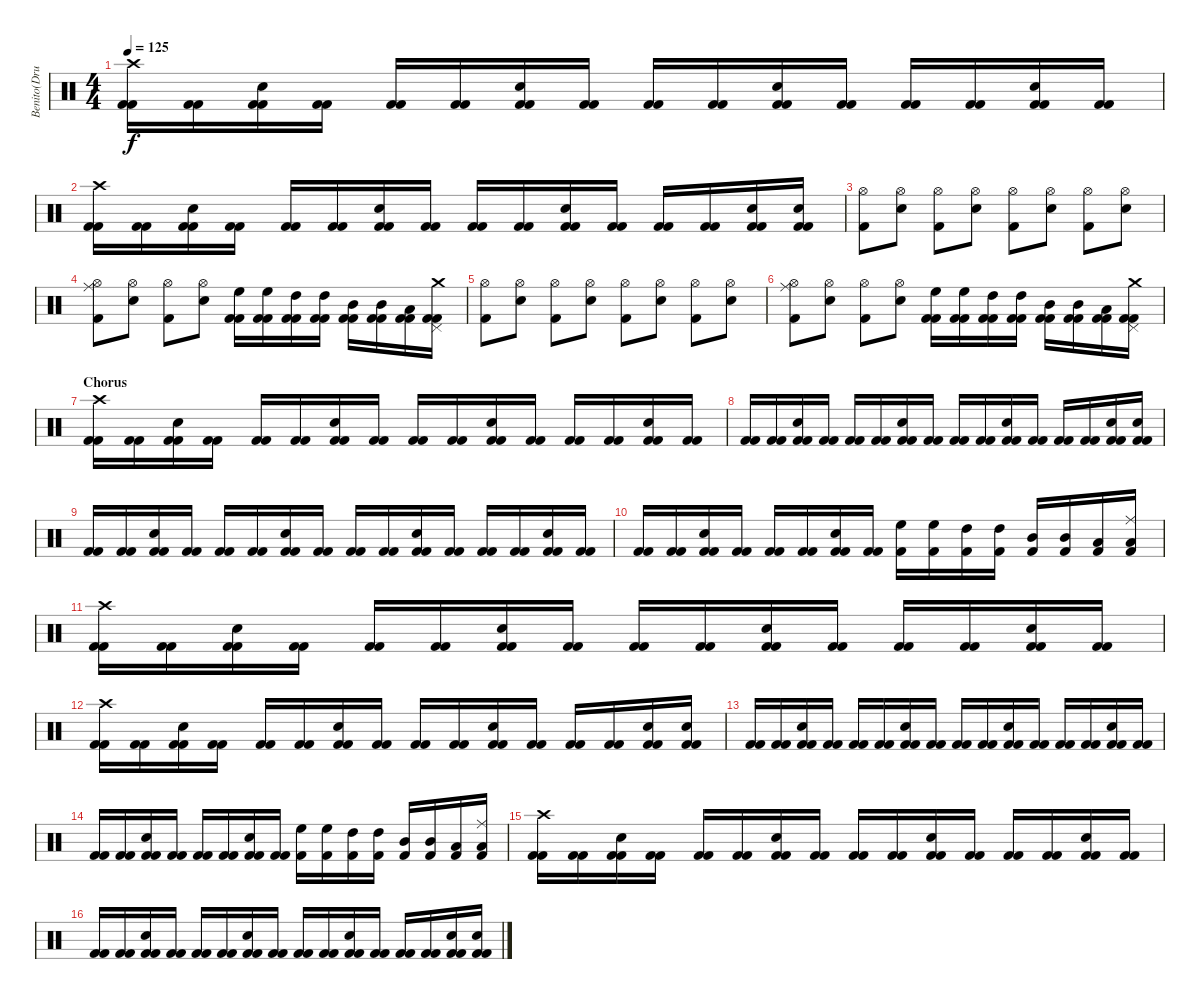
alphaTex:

\track ("Benito(Drums)" "Benito(Dru") {instrument percussion}
\staff {score}
\articulation defaults
\ts (4 4)
\tempo 125
\clef neutral
\ks c
("Kick (hit) 2" "Kick (hit) 2" "Crash high (hit)").16{dy f} ("Kick (hit) 2" "Kick (hit) 2").16 ("Kick (hit) 2" "Kick (hit) 2" "Electric Snare (hit)").16 ("Kick (hit) 2" "Kick (hit) 2").16 ("Kick (hit) 2" "Kick (hit) 2").16 ("Kick (hit) 2" "Kick (hit) 2").16 ("Kick (hit) 2" "Kick (hit) 2" "Electric Snare (hit)").16 ("Kick (hit) 2" "Kick (hit) 2").16 ("Kick (hit) 2" "Kick (hit) 2").16 ("Kick (hit) 2" "Kick (hit) 2").16 ("Kick (hit) 2" "Kick (hit) 2" "Electric Snare (hit)").16 ("Kick (hit) 2" "Kick (hit) 2").16 ("Kick (hit) 2" "Kick (hit) 2").16 ("Kick (hit) 2" "Kick (hit) 2").16 ("Kick (hit) 2" "Kick (hit) 2" "Electric Snare (hit)").16 ("Kick (hit) 2" "Kick (hit) 2").16 |
("Kick (hit) 2" "Kick (hit) 2" "Crash high (hit)").16 ("Kick (hit) 2" "Kick (hit) 2").16 ("Kick (hit) 2" "Kick (hit) 2" "Electric Snare (hit)").16 ("Kick (hit) 2" "Kick (hit) 2").16 ("Kick (hit) 2" "Kick (hit) 2").16 ("Kick (hit) 2" "Kick (hit) 2").16 ("Kick (hit) 2" "Kick (hit) 2" "Electric Snare (hit)").16 ("Kick (hit) 2" "Kick (hit) 2").16 ("Kick (hit) 2" "Kick (hit) 2").16 ("Kick (hit) 2" "Kick (hit) 2").16 ("Kick (hit) 2" "Kick (hit) 2" "Electric Snare (hit)").16 ("Kick (hit) 2" "Kick (hit) 2").16 ("Kick (hit) 2" "Kick (hit) 2").16 ("Kick (hit) 2" "Kick (hit) 2").16 ("Kick (hit) 2" "Kick (hit) 2" "Electric Snare (hit)").16 ("Kick (hit) 2" "Kick (hit) 2" "Electric Snare (hit)").16 |
("Kick (hit) 2" "Hi-Hat (open)").8 ("Hi-Hat (open)" "Electric Snare (hit)").8 ("Kick (hit) 2" "Hi-Hat (open)").8 ("Hi-Hat (open)" "Electric Snare (hit)").8 ("Kick (hit) 2" "Hi-Hat (open)").8 ("Hi-Hat (open)" "Electric Snare (hit)").8 ("Kick (hit) 2" "Hi-Hat (open)").8 ("Hi-Hat (open)" "Electric Snare (hit)").8 |
("Kick (hit) 2" "Hi-Hat (open)" "Ride (middle)").8 ("Hi-Hat (open)" "Snare (hit) 2").8 ("Kick (hit) 2" "Hi-Hat (open)").8 ("Hi-Hat (open)" "Snare (hit) 2").8 ("Kick (hit) 2" "Kick (hit) 2" "High Floor Tom (hit)").16 ("Kick (hit) 2" "Kick (hit) 2" "High Floor Tom (hit)").16 ("Kick (hit) 2" "Kick (hit) 2" "High Tom (hit)").16 ("Kick (hit) 2" "Kick (hit) 2" "High Tom (hit)").16 ("Kick (hit) 2" "Kick (hit) 2" "Mid Tom (hit)").16 ("Kick (hit) 2" "Kick (hit) 2" "Mid Tom (hit)").16 ("Kick (hit) 2" "Kick (hit) 2" "Low Tom (hit)").16 ("Kick (hit) 2" "Kick (hit) 2" "Pedal Hi-Hat (hit)" "Crash medium (hit)").16 |
("Kick (hit) 2" "Hi-Hat (open)").8 ("Hi-Hat (open)" "Electric Snare (hit)").8 ("Kick (hit) 2" "Hi-Hat (open)").8 ("Hi-Hat (open)" "Electric Snare (hit)").8 ("Kick (hit) 2" "Hi-Hat (open)").8 ("Hi-Hat (open)" "Electric Snare (hit)").8 ("Kick (hit) 2" "Hi-Hat (open)").8 ("Hi-Hat (open)" "Electric Snare (hit)").8 |
("Kick (hit) 2" "Hi-Hat (open)" "Ride (middle)").8 ("Hi-Hat (open)" "Snare (hit) 2").8 ("Kick (hit) 2" "Hi-Hat (open)").8 ("Hi-Hat (open)" "Snare (hit) 2").8 ("Kick (hit) 2" "Kick (hit) 2" "High Floor Tom (hit)").16 ("Kick (hit) 2" "Kick (hit) 2" "High Floor Tom (hit)").16 ("Kick (hit) 2" "Kick (hit) 2" "High Tom (hit)").16 ("Kick (hit) 2" "Kick (hit) 2" "High Tom (hit)").16 ("Kick (hit) 2" "Kick (hit) 2" "Mid Tom (hit)").16 ("Kick (hit) 2" "Kick (hit) 2" "Mid Tom (hit)").16 ("Kick (hit) 2" "Kick (hit) 2" "Low Tom (hit)").16 ("Kick (hit) 2" "Kick (hit) 2" "Pedal Hi-Hat (hit)" "Crash medium (hit)").16 |
\section ("" "Chorus")
("Kick (hit) 2" "Kick (hit) 2" "Crash high (hit)").16 ("Kick (hit) 2" "Kick (hit) 2").16 ("Kick (hit) 2" "Kick (hit) 2" "Electric Snare (hit)").16 ("Kick (hit) 2" "Kick (hit) 2").16 ("Kick (hit) 2" "Kick (hit) 2").16 ("Kick (hit) 2" "Kick (hit) 2").16 ("Kick (hit) 2" "Kick (hit) 2" "Electric Snare (hit)").16 ("Kick (hit) 2" "Kick (hit) 2").16 ("Kick (hit) 2" "Kick (hit) 2").16 ("Kick (hit) 2" "Kick (hit) 2").16 ("Kick (hit) 2" "Kick (hit) 2" "Electric Snare (hit)").16 ("Kick (hit) 2" "Kick (hit) 2").16 ("Kick (hit) 2" "Kick (hit) 2").16 ("Kick (hit) 2" "Kick (hit) 2").16 ("Kick (hit) 2" "Kick (hit) 2" "Electric Snare (hit)").16 ("Kick (hit) 2" "Kick (hit) 2").16 |
("Kick (hit) 2" "Kick (hit) 2").16 ("Kick (hit) 2" "Kick (hit) 2").16 ("Kick (hit) 2" "Kick (hit) 2" "Electric Snare (hit)").16 ("Kick (hit) 2" "Kick (hit) 2").16 ("Kick (hit) 2" "Kick (hit) 2").16 ("Kick (hit) 2" "Kick (hit) 2").16 ("Kick (hit) 2" "Kick (hit) 2" "Electric Snare (hit)").16 ("Kick (hit) 2" "Kick (hit) 2").16 ("Kick (hit) 2" "Kick (hit) 2").16 ("Kick (hit) 2" "Kick (hit) 2").16 ("Kick (hit) 2" "Kick (hit) 2" "Electric Snare (hit)").16 ("Kick (hit) 2" "Kick (hit) 2").16 ("Kick (hit) 2" "Kick (hit) 2").16 ("Kick (hit) 2" "Kick (hit) 2").16 ("Kick (hit) 2" "Kick (hit) 2" "Electric Snare (hit)").16 ("Kick (hit) 2" "Kick (hit) 2" "Electric Snare (hit)").16 |
("Kick (hit) 2" "Kick (hit) 2").16 ("Kick (hit) 2" "Kick (hit) 2").16 ("Kick (hit) 2" "Kick (hit) 2" "Electric Snare (hit)").16 ("Kick (hit) 2" "Kick (hit) 2").16 ("Kick (hit) 2" "Kick (hit) 2").16 ("Kick (hit) 2" "Kick (hit) 2").16 ("Kick (hit) 2" "Kick (hit) 2" "Electric Snare (hit)").16 ("Kick (hit) 2" "Kick (hit) 2").16 ("Kick (hit) 2" "Kick (hit) 2").16 ("Kick (hit) 2" "Kick (hit) 2").16 ("Kick (hit) 2" "Kick (hit) 2" "Electric Snare (hit)").16 ("Kick (hit) 2" "Kick (hit) 2").16 ("Kick (hit) 2" "Kick (hit) 2").16 ("Kick (hit) 2" "Kick (hit) 2").16 ("Kick (hit) 2" "Kick (hit) 2" "Electric Snare (hit)").16 ("Kick (hit) 2" "Kick (hit) 2").16 |
("Kick (hit) 2" "Kick (hit) 2").16 ("Kick (hit) 2" "Kick (hit) 2").16 ("Kick (hit) 2" "Kick (hit) 2" "Electric Snare (hit)").16 ("Kick (hit) 2" "Kick (hit) 2").16 ("Kick (hit) 2" "Kick (hit) 2").16 ("Kick (hit) 2" "Kick (hit) 2").16 ("Kick (hit) 2" "Kick (hit) 2" "Electric Snare (hit)").16 ("Kick (hit) 2" "Kick (hit) 2").16 ("Kick (hit) 2" "High Floor Tom (hit)").16 ("Kick (hit) 2" "High Floor Tom (hit)").16 ("Kick (hit) 2" "High Tom (hit)").16 ("Kick (hit) 2" "High Tom (hit)").16 ("Kick (hit) 2" "Mid Tom (hit)").16 ("Kick (hit) 2" "Mid Tom (hit)").16 ("Kick (hit) 2" "Low Tom (hit)").16 ("Kick (hit) 2" "Low Tom (hit)" "Ride (middle)").16 |
("Kick (hit) 2" "Kick (hit) 2" "Crash high (hit)").16 ("Kick (hit) 2" "Kick (hit) 2").16 ("Kick (hit) 2" "Kick (hit) 2" "Electric Snare (hit)").16 ("Kick (hit) 2" "Kick (hit) 2").16 ("Kick (hit) 2" "Kick (hit) 2").16 ("Kick (hit) 2" "Kick (hit) 2").16 ("Kick (hit) 2" "Kick (hit) 2" "Electric Snare (hit)").16 ("Kick (hit) 2" "Kick (hit) 2").16 ("Kick (hit) 2" "Kick (hit) 2").16 ("Kick (hit) 2" "Kick (hit) 2").16 ("Kick (hit) 2" "Kick (hit) 2" "Electric Snare (hit)").16 ("Kick (hit) 2" "Kick (hit) 2").16 ("Kick (hit) 2" "Kick (hit) 2").16 ("Kick (hit) 2" "Kick (hit) 2").16 ("Kick (hit) 2" "Kick (hit) 2" "Electric Snare (hit)").16 ("Kick (hit) 2" "Kick (hit) 2").16 |
("Kick (hit) 2" "Kick (hit) 2" "Crash high (hit)").16 ("Kick (hit) 2" "Kick (hit) 2").16 ("Kick (hit) 2" "Kick (hit) 2" "Electric Snare (hit)").16 ("Kick (hit) 2" "Kick (hit) 2").16 ("Kick (hit) 2" "Kick (hit) 2").16 ("Kick (hit) 2" "Kick (hit) 2").16 ("Kick (hit) 2" "Kick (hit) 2" "Electric Snare (hit)").16 ("Kick (hit) 2" "Kick (hit) 2").16 ("Kick (hit) 2" "Kick (hit) 2").16 ("Kick (hit) 2" "Kick (hit) 2").16 ("Kick (hit) 2" "Kick (hit) 2" "Electric Snare (hit)").16 ("Kick (hit) 2" "Kick (hit) 2").16 ("Kick (hit) 2" "Kick (hit) 2").16 ("Kick (hit) 2" "Kick (hit) 2").16 ("Kick (hit) 2" "Kick (hit) 2" "Electric Snare (hit)").16 ("Kick (hit) 2" "Kick (hit) 2" "Electric Snare (hit)").16 |
("Kick (hit) 2" "Kick (hit) 2").16 ("Kick (hit) 2" "Kick (hit) 2").16 ("Kick (hit) 2" "Kick (hit) 2" "Electric Snare (hit)").16 ("Kick (hit) 2" "Kick (hit) 2").16 ("Kick (hit) 2" "Kick (hit) 2").16 ("Kick (hit) 2" "Kick (hit) 2").16 ("Kick (hit) 2" "Kick (hit) 2" "Electric Snare (hit)").16 ("Kick (hit) 2" "Kick (hit) 2").16 ("Kick (hit) 2" "Kick (hit) 2").16 ("Kick (hit) 2" "Kick (hit) 2").16 ("Kick (hit) 2" "Kick (hit) 2" "Electric Snare (hit)").16 ("Kick (hit) 2" "Kick (hit) 2").16 ("Kick (hit) 2" "Kick (hit) 2").16 ("Kick (hit) 2" "Kick (hit) 2").16 ("Kick (hit) 2" "Kick (hit) 2" "Electric Snare (hit)").16 ("Kick (hit) 2" "Kick (hit) 2").16 |
("Kick (hit) 2" "Kick (hit) 2").16 ("Kick (hit) 2" "Kick (hit) 2").16 ("Kick (hit) 2" "Kick (hit) 2" "Electric Snare (hit)").16 ("Kick (hit) 2" "Kick (hit) 2").16 ("Kick (hit) 2" "Kick (hit) 2").16 ("Kick (hit) 2" "Kick (hit) 2").16 ("Kick (hit) 2" "Kick (hit) 2" "Electric Snare (hit)").16 ("Kick (hit) 2" "Kick (hit) 2").16 ("Kick (hit) 2" "High Floor Tom (hit)").16 ("Kick (hit) 2" "High Floor Tom (hit)").16 ("Kick (hit) 2" "High Tom (hit)").16 ("Kick (hit) 2" "High Tom (hit)").16 ("Kick (hit) 2" "Mid Tom (hit)").16 ("Kick (hit) 2" "Mid Tom (hit)").16 ("Kick (hit) 2" "Low Tom (hit)").16 ("Kick (hit) 2" "Low Tom (hit)" "Ride (middle)").16 |
("Kick (hit) 2" "Kick (hit) 2" "Crash high (hit)").16 ("Kick (hit) 2" "Kick (hit) 2").16 ("Kick (hit) 2" "Kick (hit) 2" "Electric Snare (hit)").16 ("Kick (hit) 2" "Kick (hit) 2").16 ("Kick (hit) 2" "Kick (hit) 2").16 ("Kick (hit) 2" "Kick (hit) 2").16 ("Kick (hit) 2" "Kick (hit) 2" "Electric Snare (hit)").16 ("Kick (hit) 2" "Kick (hit) 2").16 ("Kick (hit) 2" "Kick (hit) 2").16 ("Kick (hit) 2" "Kick (hit) 2").16 ("Kick (hit) 2" "Kick (hit) 2" "Electric Snare (hit)").16 ("Kick (hit) 2" "Kick (hit) 2").16 ("Kick (hit) 2" "Kick (hit) 2").16 ("Kick (hit) 2" "Kick (hit) 2").16 ("Kick (hit) 2" "Kick (hit) 2" "Electric Snare (hit)").16 ("Kick (hit) 2" "Kick (hit) 2").16 |
("Kick (hit) 2" "Kick (hit) 2").16 ("Kick (hit) 2" "Kick (hit) 2").16 ("Kick (hit) 2" "Kick (hit) 2" "Electric Snare (hit)").16 ("Kick (hit) 2" "Kick (hit) 2").16 ("Kick (hit) 2" "Kick (hit) 2").16 ("Kick (hit) 2" "Kick (hit) 2").16 ("Kick (hit) 2" "Kick (hit) 2" "Electric Snare (hit)").16 ("Kick (hit) 2" "Kick (hit) 2").16 ("Kick (hit) 2" "Kick (hit) 2").16 ("Kick (hit) 2" "Kick (hit) 2").16 ("Kick (hit) 2" "Kick (hit) 2" "Electric Snare (hit)").16 ("Kick (hit) 2" "Kick (hit) 2").16 ("Kick (hit) 2" "Kick (hit) 2").16 ("Kick (hit) 2" "Kick (hit) 2").16 ("Kick (hit) 2" "Kick (hit) 2" "Electric Snare (hit)").16 ("Kick (hit) 2" "Kick (hit) 2" "Electric Snare (hit)").16
